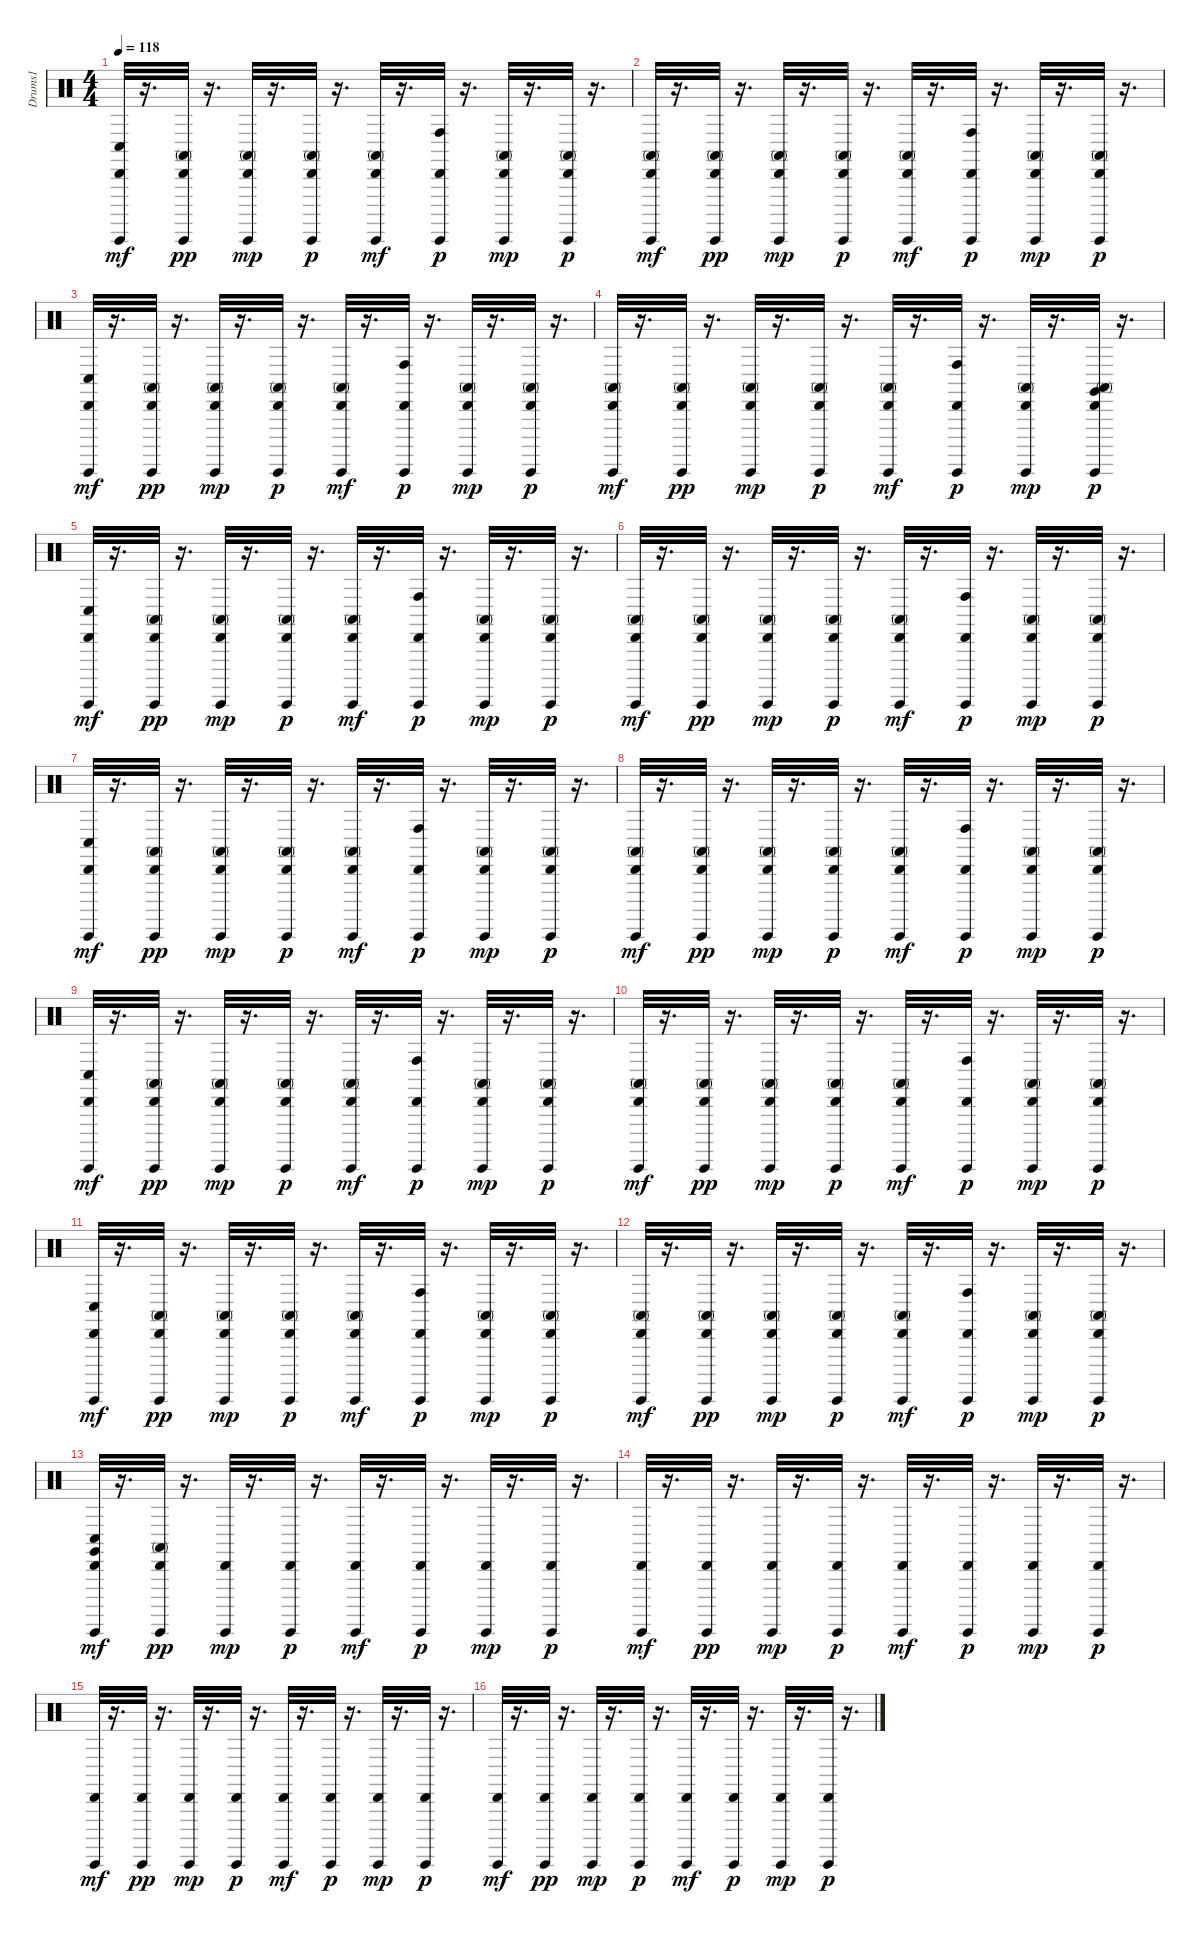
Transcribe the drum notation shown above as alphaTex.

\track ("Drums1" "Drums1") {instrument percussion}
\staff {score}
\articulation defaults
\ts (4 4)
\tempo 118
\clef neutral
\ks c
("Conga low (hit)" "Guiro (hit)" "Cabasa (hit)").32{dy mf} r.16{d} ("Conga high (mute)" "Guiro (hit)" "Cabasa (hit)").32{dy pp} r.16{d} ("Conga high (mute)" "Guiro (hit)" "Cabasa (hit)").32{dy mp} r.16{d} ("Conga high (mute)" "Guiro (hit)" "Cabasa (hit)").32{dy p} r.16{d} ("Conga high (mute)" "Guiro (hit)" "Cabasa (hit)").32{dy mf} r.16{d} ("Conga high (hit)" "Guiro (hit)" "Cabasa (hit)").32{dy p} r.16{d} ("Conga high (mute)" "Guiro (hit)" "Cabasa (hit)").32{dy mp} r.16{d} ("Conga high (mute)" "Guiro (hit)" "Cabasa (hit)").32{dy p} r.16{d} |
("Conga high (mute)" "Guiro (hit)" "Cabasa (hit)").32{dy mf} r.16{d} ("Conga high (mute)" "Guiro (hit)" "Cabasa (hit)").32{dy pp} r.16{d} ("Conga high (mute)" "Guiro (hit)" "Cabasa (hit)").32{dy mp} r.16{d} ("Conga high (mute)" "Guiro (hit)" "Cabasa (hit)").32{dy p} r.16{d} ("Conga high (mute)" "Guiro (hit)" "Cabasa (hit)").32{dy mf} r.16{d} ("Conga high (hit)" "Guiro (hit)" "Cabasa (hit)").32{dy p} r.16{d} ("Conga high (mute)" "Guiro (hit)" "Cabasa (hit)").32{dy mp} r.16{d} ("Conga high (mute)" "Guiro (hit)" "Cabasa (hit)").32{dy p} r.16{d} |
("Conga low (hit)" "Guiro (hit)" "Cabasa (hit)").32{dy mf} r.16{d} ("Conga high (mute)" "Guiro (hit)" "Cabasa (hit)").32{dy pp} r.16{d} ("Conga high (mute)" "Guiro (hit)" "Cabasa (hit)").32{dy mp} r.16{d} ("Conga high (mute)" "Guiro (hit)" "Cabasa (hit)").32{dy p} r.16{d} ("Conga high (mute)" "Guiro (hit)" "Cabasa (hit)").32{dy mf} r.16{d} ("Conga high (hit)" "Guiro (hit)" "Cabasa (hit)").32{dy p} r.16{d} ("Conga high (mute)" "Guiro (hit)" "Cabasa (hit)").32{dy mp} r.16{d} ("Conga high (mute)" "Guiro (hit)" "Cabasa (hit)").32{dy p} r.16{d} |
("Conga high (mute)" "Guiro (hit)" "Cabasa (hit)").32{dy mf} r.16{d} ("Conga high (mute)" "Guiro (hit)" "Cabasa (hit)").32{dy pp} r.16{d} ("Conga high (mute)" "Guiro (hit)" "Cabasa (hit)").32{dy mp} r.16{d} ("Conga high (mute)" "Guiro (hit)" "Cabasa (hit)").32{dy p} r.16{d} ("Conga high (mute)" "Guiro (hit)" "Cabasa (hit)").32{dy mf} r.16{d} ("Conga high (hit)" "Guiro (hit)" "Cabasa (hit)").32{dy p} r.16{d} ("Conga high (mute)" "Guiro (hit)" "Cabasa (hit)").32{dy mp} r.16{d} ("Conga high (mute)" "Guiro (hit)" "Claves (hit)" "Cabasa (hit)").32{dy p} r.16{d} |
("Conga low (hit)" "Guiro (hit)" "Cabasa (hit)").32{dy mf} r.16{d} ("Conga high (mute)" "Guiro (hit)" "Cabasa (hit)").32{dy pp} r.16{d} ("Conga high (mute)" "Guiro (hit)" "Cabasa (hit)").32{dy mp} r.16{d} ("Conga high (mute)" "Guiro (hit)" "Cabasa (hit)").32{dy p} r.16{d} ("Conga high (mute)" "Guiro (hit)" "Cabasa (hit)").32{dy mf} r.16{d} ("Conga high (hit)" "Guiro (hit)" "Cabasa (hit)").32{dy p} r.16{d} ("Conga high (mute)" "Guiro (hit)" "Cabasa (hit)").32{dy mp} r.16{d} ("Conga high (mute)" "Guiro (hit)" "Cabasa (hit)").32{dy p} r.16{d} |
("Conga high (mute)" "Guiro (hit)" "Cabasa (hit)").32{dy mf} r.16{d} ("Conga high (mute)" "Guiro (hit)" "Cabasa (hit)").32{dy pp} r.16{d} ("Conga high (mute)" "Guiro (hit)" "Cabasa (hit)").32{dy mp} r.16{d} ("Conga high (mute)" "Guiro (hit)" "Cabasa (hit)").32{dy p} r.16{d} ("Conga high (mute)" "Guiro (hit)" "Cabasa (hit)").32{dy mf} r.16{d} ("Conga high (hit)" "Guiro (hit)" "Cabasa (hit)").32{dy p} r.16{d} ("Conga high (mute)" "Guiro (hit)" "Cabasa (hit)").32{dy mp} r.16{d} ("Conga high (mute)" "Guiro (hit)" "Cabasa (hit)").32{dy p} r.16{d} |
("Conga low (hit)" "Guiro (hit)" "Cabasa (hit)").32{dy mf} r.16{d} ("Conga high (mute)" "Guiro (hit)" "Cabasa (hit)").32{dy pp} r.16{d} ("Conga high (mute)" "Guiro (hit)" "Cabasa (hit)").32{dy mp} r.16{d} ("Conga high (mute)" "Guiro (hit)" "Cabasa (hit)").32{dy p} r.16{d} ("Conga high (mute)" "Guiro (hit)" "Cabasa (hit)").32{dy mf} r.16{d} ("Conga high (hit)" "Guiro (hit)" "Cabasa (hit)").32{dy p} r.16{d} ("Conga high (mute)" "Guiro (hit)" "Cabasa (hit)").32{dy mp} r.16{d} ("Conga high (mute)" "Guiro (hit)" "Cabasa (hit)").32{dy p} r.16{d} |
("Conga high (mute)" "Guiro (hit)" "Cabasa (hit)").32{dy mf} r.16{d} ("Conga high (mute)" "Guiro (hit)" "Cabasa (hit)").32{dy pp} r.16{d} ("Conga high (mute)" "Guiro (hit)" "Cabasa (hit)").32{dy mp} r.16{d} ("Conga high (mute)" "Guiro (hit)" "Cabasa (hit)").32{dy p} r.16{d} ("Conga high (mute)" "Guiro (hit)" "Cabasa (hit)").32{dy mf} r.16{d} ("Conga high (hit)" "Guiro (hit)" "Cabasa (hit)").32{dy p} r.16{d} ("Conga high (mute)" "Guiro (hit)" "Cabasa (hit)").32{dy mp} r.16{d} ("Conga high (mute)" "Guiro (hit)" "Cabasa (hit)").32{dy p} r.16{d} |
("Conga low (hit)" "Guiro (hit)" "Cabasa (hit)").32{dy mf} r.16{d} ("Conga high (mute)" "Guiro (hit)" "Cabasa (hit)").32{dy pp} r.16{d} ("Conga high (mute)" "Guiro (hit)" "Cabasa (hit)").32{dy mp} r.16{d} ("Conga high (mute)" "Guiro (hit)" "Cabasa (hit)").32{dy p} r.16{d} ("Conga high (mute)" "Guiro (hit)" "Cabasa (hit)").32{dy mf} r.16{d} ("Conga high (hit)" "Guiro (hit)" "Cabasa (hit)").32{dy p} r.16{d} ("Conga high (mute)" "Guiro (hit)" "Cabasa (hit)").32{dy mp} r.16{d} ("Conga high (mute)" "Guiro (hit)" "Cabasa (hit)").32{dy p} r.16{d} |
("Conga high (mute)" "Guiro (hit)" "Cabasa (hit)").32{dy mf} r.16{d} ("Conga high (mute)" "Guiro (hit)" "Cabasa (hit)").32{dy pp} r.16{d} ("Conga high (mute)" "Guiro (hit)" "Cabasa (hit)").32{dy mp} r.16{d} ("Conga high (mute)" "Guiro (hit)" "Cabasa (hit)").32{dy p} r.16{d} ("Conga high (mute)" "Guiro (hit)" "Cabasa (hit)").32{dy mf} r.16{d} ("Conga high (hit)" "Guiro (hit)" "Cabasa (hit)").32{dy p} r.16{d} ("Conga high (mute)" "Guiro (hit)" "Cabasa (hit)").32{dy mp} r.16{d} ("Conga high (mute)" "Guiro (hit)" "Cabasa (hit)").32{dy p} r.16{d} |
("Conga low (hit)" "Guiro (hit)" "Cabasa (hit)").32{dy mf} r.16{d} ("Conga high (mute)" "Guiro (hit)" "Cabasa (hit)").32{dy pp} r.16{d} ("Conga high (mute)" "Guiro (hit)" "Cabasa (hit)").32{dy mp} r.16{d} ("Conga high (mute)" "Guiro (hit)" "Cabasa (hit)").32{dy p} r.16{d} ("Conga high (mute)" "Guiro (hit)" "Cabasa (hit)").32{dy mf} r.16{d} ("Conga high (hit)" "Guiro (hit)" "Cabasa (hit)").32{dy p} r.16{d} ("Conga high (mute)" "Guiro (hit)" "Cabasa (hit)").32{dy mp} r.16{d} ("Conga high (mute)" "Guiro (hit)" "Cabasa (hit)").32{dy p} r.16{d} |
("Conga high (mute)" "Guiro (hit)" "Cabasa (hit)").32{dy mf} r.16{d} ("Conga high (mute)" "Guiro (hit)" "Cabasa (hit)").32{dy pp} r.16{d} ("Conga high (mute)" "Guiro (hit)" "Cabasa (hit)").32{dy mp} r.16{d} ("Conga high (mute)" "Guiro (hit)" "Cabasa (hit)").32{dy p} r.16{d} ("Conga high (mute)" "Guiro (hit)" "Cabasa (hit)").32{dy mf} r.16{d} ("Conga high (hit)" "Guiro (hit)" "Cabasa (hit)").32{dy p} r.16{d} ("Conga high (mute)" "Guiro (hit)" "Cabasa (hit)").32{dy mp} r.16{d} ("Conga high (mute)" "Guiro (hit)" "Cabasa (hit)").32{dy p} r.16{d} |
("Conga low (hit)" "Claves (hit)" "Guiro (hit)" "Cabasa (hit)").32{dy mf} r.16{d} ("Conga high (mute)" "Guiro (hit)" "Cabasa (hit)").32{dy pp} r.16{d} ("Guiro (hit)" "Cabasa (hit)").32{dy mp} r.16{d} ("Guiro (hit)" "Cabasa (hit)").32{dy p} r.16{d} ("Guiro (hit)" "Cabasa (hit)").32{dy mf} r.16{d} ("Guiro (hit)" "Cabasa (hit)").32{dy p} r.16{d} ("Guiro (hit)" "Cabasa (hit)").32{dy mp} r.16{d} ("Guiro (hit)" "Cabasa (hit)").32{dy p} r.16{d} |
("Guiro (hit)" "Cabasa (hit)").32{dy mf} r.16{d} ("Guiro (hit)" "Cabasa (hit)").32{dy pp} r.16{d} ("Guiro (hit)" "Cabasa (hit)").32{dy mp} r.16{d} ("Guiro (hit)" "Cabasa (hit)").32{dy p} r.16{d} ("Guiro (hit)" "Cabasa (hit)").32{dy mf} r.16{d} ("Guiro (hit)" "Cabasa (hit)").32{dy p} r.16{d} ("Guiro (hit)" "Cabasa (hit)").32{dy mp} r.16{d} ("Guiro (hit)" "Cabasa (hit)").32{dy p} r.16{d} |
("Guiro (hit)" "Cabasa (hit)").32{dy mf} r.16{d} ("Guiro (hit)" "Cabasa (hit)").32{dy pp} r.16{d} ("Guiro (hit)" "Cabasa (hit)").32{dy mp} r.16{d} ("Guiro (hit)" "Cabasa (hit)").32{dy p} r.16{d} ("Guiro (hit)" "Cabasa (hit)").32{dy mf} r.16{d} ("Guiro (hit)" "Cabasa (hit)").32{dy p} r.16{d} ("Guiro (hit)" "Cabasa (hit)").32{dy mp} r.16{d} ("Guiro (hit)" "Cabasa (hit)").32{dy p} r.16{d} |
("Guiro (hit)" "Cabasa (hit)").32{dy mf} r.16{d} ("Guiro (hit)" "Cabasa (hit)").32{dy pp} r.16{d} ("Guiro (hit)" "Cabasa (hit)").32{dy mp} r.16{d} ("Guiro (hit)" "Cabasa (hit)").32{dy p} r.16{d} ("Guiro (hit)" "Cabasa (hit)").32{dy mf} r.16{d} ("Guiro (hit)" "Cabasa (hit)").32{dy p} r.16{d} ("Guiro (hit)" "Cabasa (hit)").32{dy mp} r.16{d} ("Guiro (hit)" "Cabasa (hit)").32{dy p} r.16{d}
